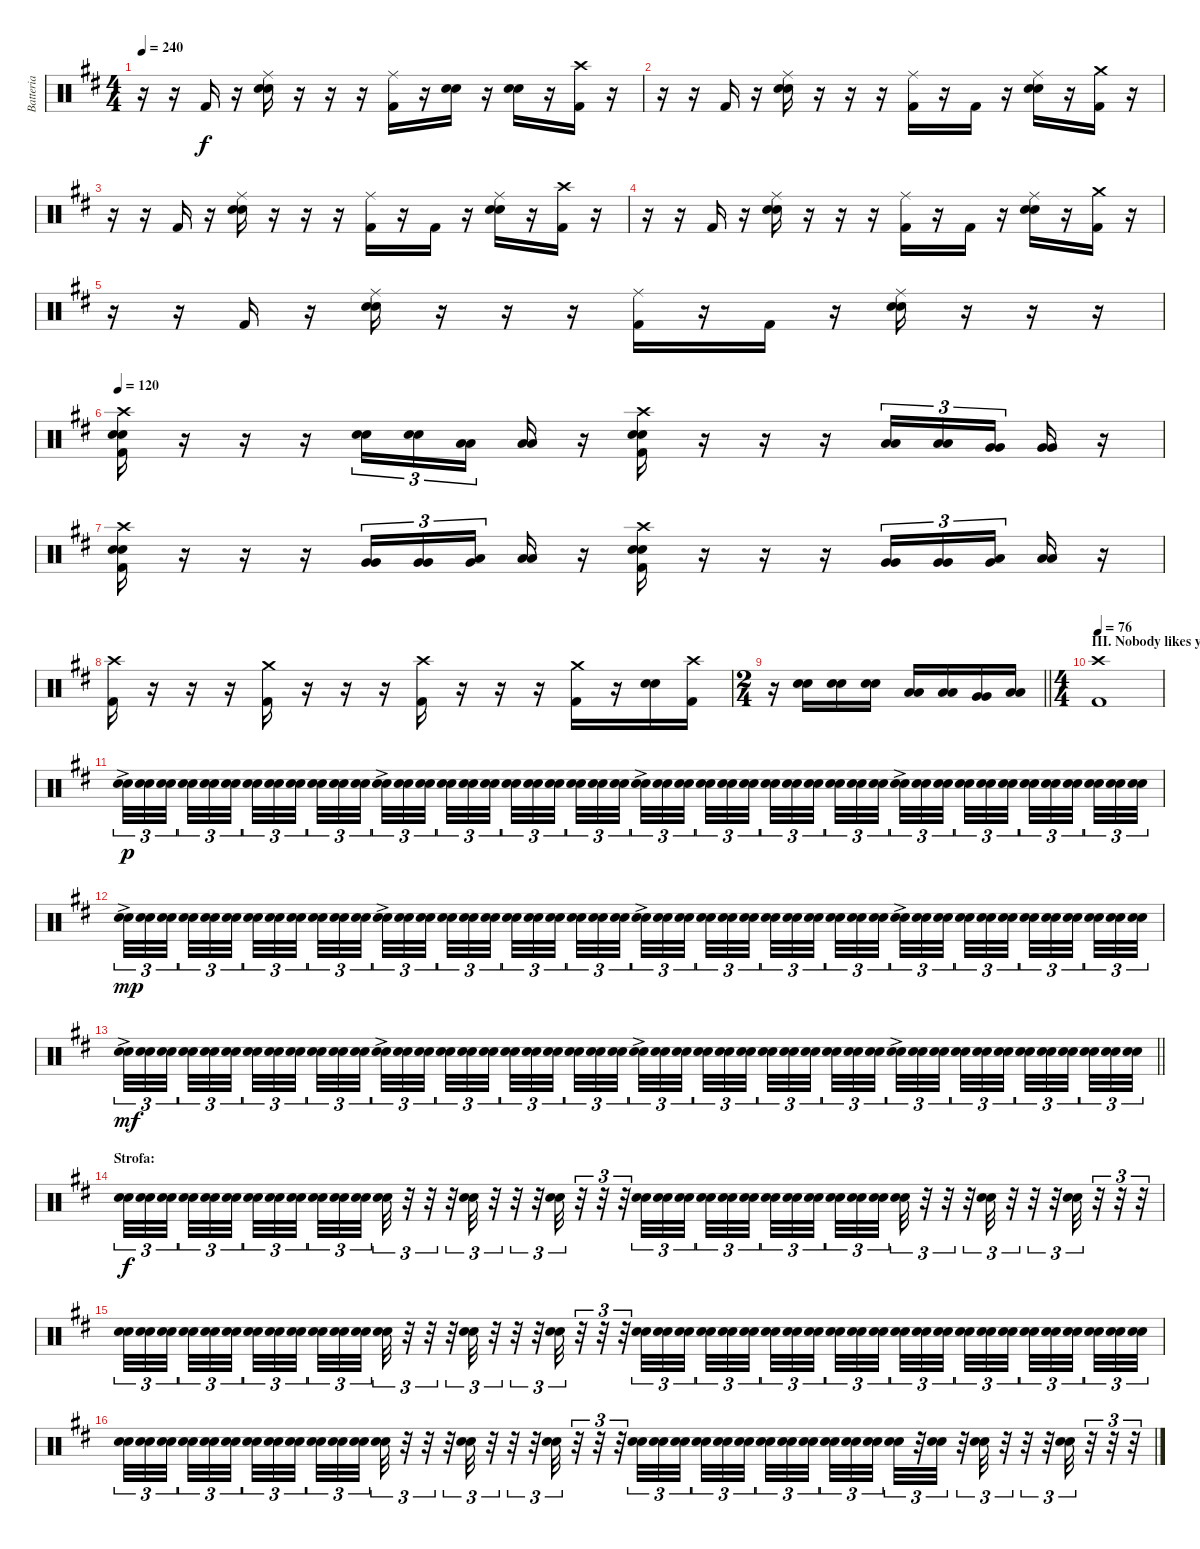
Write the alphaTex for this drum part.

\track ("Batteria" "Batteria") {instrument percussion}
\staff {score}
\articulation defaults
\ts (4 4)
\tempo 240
\clef neutral
\ks d
r.16{dy f} r.16 "Kick (hit) 2".16 r.16 ("Snare (hit) 2" "Snare (hit) 2" "Ride (middle)").16 r.16 r.16 r.16 ("Kick (hit) 2" "Ride (middle)").16 r.16 ("Snare (hit) 2" "Snare (hit) 2").16 r.16 ("Snare (hit) 2" "Snare (hit) 2").16 r.16 ("Kick (hit) 2" "Crash high (hit)").16 r.16 |
r.16 r.16 "Kick (hit) 2".16 r.16 ("Snare (hit) 2" "Snare (hit) 2" "Ride (middle)").16 r.16 r.16 r.16 ("Kick (hit) 2" "Ride (middle)").16 r.16 "Kick (hit) 2".16 r.16 ("Snare (hit) 2" "Snare (hit) 2" "Ride (middle)").16 r.16 ("Kick (hit) 2" "Crash medium (hit)").16 r.16 |
r.16 r.16 "Kick (hit) 2".16 r.16 ("Snare (hit) 2" "Snare (hit) 2" "Ride (middle)").16 r.16 r.16 r.16 ("Kick (hit) 2" "Ride (middle)").16 r.16 "Kick (hit) 2".16 r.16 ("Snare (hit) 2" "Snare (hit) 2" "Ride (middle)").16 r.16 ("Kick (hit) 2" "Crash high (hit)").16 r.16 |
r.16 r.16 "Kick (hit) 2".16 r.16 ("Snare (hit) 2" "Snare (hit) 2" "Ride (middle)").16 r.16 r.16 r.16 ("Kick (hit) 2" "Ride (middle)").16 r.16 "Kick (hit) 2".16 r.16 ("Snare (hit) 2" "Snare (hit) 2" "Ride (middle)").16 r.16 ("Kick (hit) 2" "Crash medium (hit)").16 r.16 |
r.16 r.16 "Kick (hit) 2".16 r.16 ("Snare (hit) 2" "Snare (hit) 2" "Ride (middle)").16 r.16 r.16 r.16 ("Kick (hit) 2" "Ride (middle)").16 r.16 "Kick (hit) 2".16 r.16 ("Snare (hit) 2" "Snare (hit) 2" "Ride (middle)").16 r.16 r.16 r.16 |
\tempo 120
("Kick (hit) 2" "Snare (hit) 2" "Snare (hit) 2" "Crash high (hit)").16 r.16 r.16 r.16 ("Snare (hit) 2" "Snare (hit) 2").16{tu (3 2)} ("Snare (hit) 2" "Snare (hit) 2").16{tu (3 2)} ("Low Tom (hit)" "Low Tom (hit)").16{tu (3 2) beam splitsecondary} ("Low Tom (hit)" "Low Tom (hit)").16 r.16 ("Kick (hit) 2" "Snare (hit) 2" "Snare (hit) 2" "Crash high (hit)").16 r.16 r.16 r.16 ("Low Tom (hit)" "Low Tom (hit)").16{tu (3 2)} ("Low Tom (hit)" "Low Tom (hit)").16{tu (3 2)} ("Very Low Tom (hit)" "Very Low Tom (hit)").16{tu (3 2) beam splitsecondary} ("Very Low Tom (hit)" "Very Low Tom (hit)").16 r.16 |
("Kick (hit) 2" "Snare (hit) 2" "Snare (hit) 2" "Crash high (hit)").16 r.16 r.16 r.16 ("Very Low Tom (hit)" "Very Low Tom (hit)").16{tu (3 2)} ("Very Low Tom (hit)" "Very Low Tom (hit)").16{tu (3 2)} ("Low Floor Tom (hit)" "Very Low Tom (hit)").16{tu (3 2) beam splitsecondary} ("Low Floor Tom (hit)" "Low Floor Tom (hit)").16 r.16 ("Kick (hit) 2" "Snare (hit) 2" "Snare (hit) 2" "Crash high (hit)").16 r.16 r.16 r.16 ("Very Low Tom (hit)" "Very Low Tom (hit)").16{tu (3 2)} ("Very Low Tom (hit)" "Very Low Tom (hit)").16{tu (3 2)} ("Low Floor Tom (hit)" "Very Low Tom (hit)").16{tu (3 2) beam splitsecondary} ("Low Floor Tom (hit)" "Low Floor Tom (hit)").16 r.16 |
("Kick (hit) 2" "Crash high (hit)").16 r.16 r.16 r.16 ("Kick (hit) 2" "Crash medium (hit)").16 r.16 r.16 r.16 ("Kick (hit) 2" "Crash high (hit)").16 r.16 r.16 r.16 ("Kick (hit) 2" "Crash medium (hit)").16 r.16 ("Snare (hit) 2" "Snare (hit) 2").16 ("Kick (hit) 2" "Crash high (hit)").16 |
\ts (2 4)
\barLineRight lightlight
r.16 ("Snare (hit) 2" "Snare (hit) 2").16 ("Snare (hit) 2" "Snare (hit) 2").16 ("Snare (hit) 2" "Snare (hit) 2").16 ("Low Tom (hit)" "Low Tom (hit)").16 ("Low Tom (hit)" "Low Tom (hit)").16 ("Very Low Tom (hit)" "Very Low Tom (hit)").16 ("Low Floor Tom (hit)" "Low Floor Tom (hit)").16 |
\ts (4 4)
\section ("" "III. Nobody likes you")
\tempo 76
("Kick (hit) 2" "Crash high (hit)").1 |
("Snare (hit) 2"{ac} "Snare (hit) 2"{ac}).32{tu (3 2) dy p volume 8} ("Snare (hit) 2" "Snare (hit) 2").32{tu (3 2)} ("Snare (hit) 2" "Snare (hit) 2").32{tu (3 2) beam splitsecondary} ("Snare (hit) 2" "Snare (hit) 2").32{tu (3 2)} ("Snare (hit) 2" "Snare (hit) 2").32{tu (3 2)} ("Snare (hit) 2" "Snare (hit) 2").32{tu (3 2) beam splitsecondary} ("Snare (hit) 2" "Snare (hit) 2").32{tu (3 2)} ("Snare (hit) 2" "Snare (hit) 2").32{tu (3 2)} ("Snare (hit) 2" "Snare (hit) 2").32{tu (3 2) beam splitsecondary} ("Snare (hit) 2" "Snare (hit) 2").32{tu (3 2)} ("Snare (hit) 2" "Snare (hit) 2").32{tu (3 2)} ("Snare (hit) 2" "Snare (hit) 2").32{tu (3 2)} ("Snare (hit) 2"{ac} "Snare (hit) 2"{ac}).32{tu (3 2)} ("Snare (hit) 2" "Snare (hit) 2").32{tu (3 2)} ("Snare (hit) 2" "Snare (hit) 2").32{tu (3 2) beam splitsecondary} ("Snare (hit) 2" "Snare (hit) 2").32{tu (3 2)} ("Snare (hit) 2" "Snare (hit) 2").32{tu (3 2)} ("Snare (hit) 2" "Snare (hit) 2").32{tu (3 2) beam splitsecondary} ("Snare (hit) 2" "Snare (hit) 2").32{tu (3 2)} ("Snare (hit) 2" "Snare (hit) 2").32{tu (3 2)} ("Snare (hit) 2" "Snare (hit) 2").32{tu (3 2) beam splitsecondary} ("Snare (hit) 2" "Snare (hit) 2").32{tu (3 2)} ("Snare (hit) 2" "Snare (hit) 2").32{tu (3 2)} ("Snare (hit) 2" "Snare (hit) 2").32{tu (3 2)} ("Snare (hit) 2"{ac} "Snare (hit) 2"{ac}).32{tu (3 2)} ("Snare (hit) 2" "Snare (hit) 2").32{tu (3 2)} ("Snare (hit) 2" "Snare (hit) 2").32{tu (3 2) beam splitsecondary} ("Snare (hit) 2" "Snare (hit) 2").32{tu (3 2)} ("Snare (hit) 2" "Snare (hit) 2").32{tu (3 2)} ("Snare (hit) 2" "Snare (hit) 2").32{tu (3 2) beam splitsecondary} ("Snare (hit) 2" "Snare (hit) 2").32{tu (3 2)} ("Snare (hit) 2" "Snare (hit) 2").32{tu (3 2)} ("Snare (hit) 2" "Snare (hit) 2").32{tu (3 2) beam splitsecondary} ("Snare (hit) 2" "Snare (hit) 2").32{tu (3 2)} ("Snare (hit) 2" "Snare (hit) 2").32{tu (3 2)} ("Snare (hit) 2" "Snare (hit) 2").32{tu (3 2)} ("Snare (hit) 2"{ac} "Snare (hit) 2"{ac}).32{tu (3 2)} ("Snare (hit) 2" "Snare (hit) 2").32{tu (3 2)} ("Snare (hit) 2" "Snare (hit) 2").32{tu (3 2) beam splitsecondary} ("Snare (hit) 2" "Snare (hit) 2").32{tu (3 2)} ("Snare (hit) 2" "Snare (hit) 2").32{tu (3 2)} ("Snare (hit) 2" "Snare (hit) 2").32{tu (3 2) beam splitsecondary} ("Snare (hit) 2" "Snare (hit) 2").32{tu (3 2)} ("Snare (hit) 2" "Snare (hit) 2").32{tu (3 2)} ("Snare (hit) 2" "Snare (hit) 2").32{tu (3 2) beam splitsecondary} ("Snare (hit) 2" "Snare (hit) 2").32{tu (3 2)} ("Snare (hit) 2" "Snare (hit) 2").32{tu (3 2)} ("Snare (hit) 2" "Snare (hit) 2").32{tu (3 2)} |
("Snare (hit) 2"{ac} "Snare (hit) 2"{ac}).32{tu (3 2) dy mp} ("Snare (hit) 2" "Snare (hit) 2").32{tu (3 2)} ("Snare (hit) 2" "Snare (hit) 2").32{tu (3 2) beam splitsecondary} ("Snare (hit) 2" "Snare (hit) 2").32{tu (3 2)} ("Snare (hit) 2" "Snare (hit) 2").32{tu (3 2)} ("Snare (hit) 2" "Snare (hit) 2").32{tu (3 2) beam splitsecondary} ("Snare (hit) 2" "Snare (hit) 2").32{tu (3 2)} ("Snare (hit) 2" "Snare (hit) 2").32{tu (3 2)} ("Snare (hit) 2" "Snare (hit) 2").32{tu (3 2) beam splitsecondary} ("Snare (hit) 2" "Snare (hit) 2").32{tu (3 2)} ("Snare (hit) 2" "Snare (hit) 2").32{tu (3 2)} ("Snare (hit) 2" "Snare (hit) 2").32{tu (3 2)} ("Snare (hit) 2"{ac} "Snare (hit) 2"{ac}).32{tu (3 2)} ("Snare (hit) 2" "Snare (hit) 2").32{tu (3 2)} ("Snare (hit) 2" "Snare (hit) 2").32{tu (3 2) beam splitsecondary} ("Snare (hit) 2" "Snare (hit) 2").32{tu (3 2)} ("Snare (hit) 2" "Snare (hit) 2").32{tu (3 2)} ("Snare (hit) 2" "Snare (hit) 2").32{tu (3 2) beam splitsecondary} ("Snare (hit) 2" "Snare (hit) 2").32{tu (3 2)} ("Snare (hit) 2" "Snare (hit) 2").32{tu (3 2)} ("Snare (hit) 2" "Snare (hit) 2").32{tu (3 2) beam splitsecondary} ("Snare (hit) 2" "Snare (hit) 2").32{tu (3 2)} ("Snare (hit) 2" "Snare (hit) 2").32{tu (3 2)} ("Snare (hit) 2" "Snare (hit) 2").32{tu (3 2)} ("Snare (hit) 2"{ac} "Snare (hit) 2"{ac}).32{tu (3 2)} ("Snare (hit) 2" "Snare (hit) 2").32{tu (3 2)} ("Snare (hit) 2" "Snare (hit) 2").32{tu (3 2) beam splitsecondary} ("Snare (hit) 2" "Snare (hit) 2").32{tu (3 2)} ("Snare (hit) 2" "Snare (hit) 2").32{tu (3 2)} ("Snare (hit) 2" "Snare (hit) 2").32{tu (3 2) beam splitsecondary} ("Snare (hit) 2" "Snare (hit) 2").32{tu (3 2)} ("Snare (hit) 2" "Snare (hit) 2").32{tu (3 2)} ("Snare (hit) 2" "Snare (hit) 2").32{tu (3 2) beam splitsecondary} ("Snare (hit) 2" "Snare (hit) 2").32{tu (3 2)} ("Snare (hit) 2" "Snare (hit) 2").32{tu (3 2)} ("Snare (hit) 2" "Snare (hit) 2").32{tu (3 2)} ("Snare (hit) 2"{ac} "Snare (hit) 2"{ac}).32{tu (3 2)} ("Snare (hit) 2" "Snare (hit) 2").32{tu (3 2)} ("Snare (hit) 2" "Snare (hit) 2").32{tu (3 2) beam splitsecondary} ("Snare (hit) 2" "Snare (hit) 2").32{tu (3 2)} ("Snare (hit) 2" "Snare (hit) 2").32{tu (3 2)} ("Snare (hit) 2" "Snare (hit) 2").32{tu (3 2) beam splitsecondary} ("Snare (hit) 2" "Snare (hit) 2").32{tu (3 2)} ("Snare (hit) 2" "Snare (hit) 2").32{tu (3 2)} ("Snare (hit) 2" "Snare (hit) 2").32{tu (3 2) beam splitsecondary} ("Snare (hit) 2" "Snare (hit) 2").32{tu (3 2)} ("Snare (hit) 2" "Snare (hit) 2").32{tu (3 2)} ("Snare (hit) 2" "Snare (hit) 2").32{tu (3 2)} |
\barLineRight lightlight
("Snare (hit) 2"{ac} "Snare (hit) 2"{ac}).32{tu (3 2) dy mf} ("Snare (hit) 2" "Snare (hit) 2").32{tu (3 2)} ("Snare (hit) 2" "Snare (hit) 2").32{tu (3 2) beam splitsecondary} ("Snare (hit) 2" "Snare (hit) 2").32{tu (3 2)} ("Snare (hit) 2" "Snare (hit) 2").32{tu (3 2)} ("Snare (hit) 2" "Snare (hit) 2").32{tu (3 2) beam splitsecondary} ("Snare (hit) 2" "Snare (hit) 2").32{tu (3 2)} ("Snare (hit) 2" "Snare (hit) 2").32{tu (3 2)} ("Snare (hit) 2" "Snare (hit) 2").32{tu (3 2) beam splitsecondary} ("Snare (hit) 2" "Snare (hit) 2").32{tu (3 2)} ("Snare (hit) 2" "Snare (hit) 2").32{tu (3 2)} ("Snare (hit) 2" "Snare (hit) 2").32{tu (3 2)} ("Snare (hit) 2"{ac} "Snare (hit) 2"{ac}).32{tu (3 2)} ("Snare (hit) 2" "Snare (hit) 2").32{tu (3 2)} ("Snare (hit) 2" "Snare (hit) 2").32{tu (3 2) beam splitsecondary} ("Snare (hit) 2" "Snare (hit) 2").32{tu (3 2)} ("Snare (hit) 2" "Snare (hit) 2").32{tu (3 2)} ("Snare (hit) 2" "Snare (hit) 2").32{tu (3 2) beam splitsecondary} ("Snare (hit) 2" "Snare (hit) 2").32{tu (3 2)} ("Snare (hit) 2" "Snare (hit) 2").32{tu (3 2)} ("Snare (hit) 2" "Snare (hit) 2").32{tu (3 2) beam splitsecondary} ("Snare (hit) 2" "Snare (hit) 2").32{tu (3 2)} ("Snare (hit) 2" "Snare (hit) 2").32{tu (3 2)} ("Snare (hit) 2" "Snare (hit) 2").32{tu (3 2)} ("Snare (hit) 2"{ac} "Snare (hit) 2"{ac}).32{tu (3 2)} ("Snare (hit) 2" "Snare (hit) 2").32{tu (3 2)} ("Snare (hit) 2" "Snare (hit) 2").32{tu (3 2) beam splitsecondary} ("Snare (hit) 2" "Snare (hit) 2").32{tu (3 2)} ("Snare (hit) 2" "Snare (hit) 2").32{tu (3 2)} ("Snare (hit) 2" "Snare (hit) 2").32{tu (3 2) beam splitsecondary} ("Snare (hit) 2" "Snare (hit) 2").32{tu (3 2)} ("Snare (hit) 2" "Snare (hit) 2").32{tu (3 2)} ("Snare (hit) 2" "Snare (hit) 2").32{tu (3 2) beam splitsecondary} ("Snare (hit) 2" "Snare (hit) 2").32{tu (3 2)} ("Snare (hit) 2" "Snare (hit) 2").32{tu (3 2)} ("Snare (hit) 2" "Snare (hit) 2").32{tu (3 2)} ("Snare (hit) 2"{ac} "Snare (hit) 2"{ac}).32{tu (3 2)} ("Snare (hit) 2" "Snare (hit) 2").32{tu (3 2)} ("Snare (hit) 2" "Snare (hit) 2").32{tu (3 2) beam splitsecondary} ("Snare (hit) 2" "Snare (hit) 2").32{tu (3 2)} ("Snare (hit) 2" "Snare (hit) 2").32{tu (3 2)} ("Snare (hit) 2" "Snare (hit) 2").32{tu (3 2) beam splitsecondary} ("Snare (hit) 2" "Snare (hit) 2").32{tu (3 2)} ("Snare (hit) 2" "Snare (hit) 2").32{tu (3 2)} ("Snare (hit) 2" "Snare (hit) 2").32{tu (3 2) beam splitsecondary} ("Snare (hit) 2" "Snare (hit) 2").32{tu (3 2)} ("Snare (hit) 2" "Snare (hit) 2").32{tu (3 2)} ("Snare (hit) 2" "Snare (hit) 2").32{tu (3 2)} |
\section ("" "Strofa:")
("Snare (hit) 2" "Snare (hit) 2").32{tu (3 2) dy f} ("Snare (hit) 2" "Snare (hit) 2").32{tu (3 2)} ("Snare (hit) 2" "Snare (hit) 2").32{tu (3 2) beam splitsecondary} ("Snare (hit) 2" "Snare (hit) 2").32{tu (3 2)} ("Snare (hit) 2" "Snare (hit) 2").32{tu (3 2)} ("Snare (hit) 2" "Snare (hit) 2").32{tu (3 2) beam splitsecondary} ("Snare (hit) 2" "Snare (hit) 2").32{tu (3 2)} ("Snare (hit) 2" "Snare (hit) 2").32{tu (3 2)} ("Snare (hit) 2" "Snare (hit) 2").32{tu (3 2) beam splitsecondary} ("Snare (hit) 2" "Snare (hit) 2").32{tu (3 2)} ("Snare (hit) 2" "Snare (hit) 2").32{tu (3 2)} ("Snare (hit) 2" "Snare (hit) 2").32{tu (3 2)} ("Snare (hit) 2" "Snare (hit) 2").32{tu (3 2)} r.32{tu (3 2)} r.32{tu (3 2)} r.32{tu (3 2)} ("Snare (hit) 2" "Snare (hit) 2").32{tu (3 2)} r.32{tu (3 2)} r.32{tu (3 2)} r.32{tu (3 2)} ("Snare (hit) 2" "Snare (hit) 2").32{tu (3 2)} r.32{tu (3 2)} r.32{tu (3 2)} r.32{tu (3 2)} ("Snare (hit) 2" "Snare (hit) 2").32{tu (3 2)} ("Snare (hit) 2" "Snare (hit) 2").32{tu (3 2)} ("Snare (hit) 2" "Snare (hit) 2").32{tu (3 2) beam splitsecondary} ("Snare (hit) 2" "Snare (hit) 2").32{tu (3 2)} ("Snare (hit) 2" "Snare (hit) 2").32{tu (3 2)} ("Snare (hit) 2" "Snare (hit) 2").32{tu (3 2) beam splitsecondary} ("Snare (hit) 2" "Snare (hit) 2").32{tu (3 2)} ("Snare (hit) 2" "Snare (hit) 2").32{tu (3 2)} ("Snare (hit) 2" "Snare (hit) 2").32{tu (3 2) beam splitsecondary} ("Snare (hit) 2" "Snare (hit) 2").32{tu (3 2)} ("Snare (hit) 2" "Snare (hit) 2").32{tu (3 2)} ("Snare (hit) 2" "Snare (hit) 2").32{tu (3 2)} ("Snare (hit) 2" "Snare (hit) 2").32{tu (3 2)} r.32{tu (3 2)} r.32{tu (3 2)} r.32{tu (3 2)} ("Snare (hit) 2" "Snare (hit) 2").32{tu (3 2)} r.32{tu (3 2)} r.32{tu (3 2)} r.32{tu (3 2)} ("Snare (hit) 2" "Snare (hit) 2").32{tu (3 2)} r.32{tu (3 2)} r.32{tu (3 2)} r.32{tu (3 2)} |
("Snare (hit) 2" "Snare (hit) 2").32{tu (3 2)} ("Snare (hit) 2" "Snare (hit) 2").32{tu (3 2)} ("Snare (hit) 2" "Snare (hit) 2").32{tu (3 2) beam splitsecondary} ("Snare (hit) 2" "Snare (hit) 2").32{tu (3 2)} ("Snare (hit) 2" "Snare (hit) 2").32{tu (3 2)} ("Snare (hit) 2" "Snare (hit) 2").32{tu (3 2) beam splitsecondary} ("Snare (hit) 2" "Snare (hit) 2").32{tu (3 2)} ("Snare (hit) 2" "Snare (hit) 2").32{tu (3 2)} ("Snare (hit) 2" "Snare (hit) 2").32{tu (3 2) beam splitsecondary} ("Snare (hit) 2" "Snare (hit) 2").32{tu (3 2)} ("Snare (hit) 2" "Snare (hit) 2").32{tu (3 2)} ("Snare (hit) 2" "Snare (hit) 2").32{tu (3 2)} ("Snare (hit) 2" "Snare (hit) 2").32{tu (3 2)} r.32{tu (3 2)} r.32{tu (3 2)} r.32{tu (3 2)} ("Snare (hit) 2" "Snare (hit) 2").32{tu (3 2)} r.32{tu (3 2)} r.32{tu (3 2)} r.32{tu (3 2)} ("Snare (hit) 2" "Snare (hit) 2").32{tu (3 2)} r.32{tu (3 2)} r.32{tu (3 2)} r.32{tu (3 2)} ("Snare (hit) 2" "Snare (hit) 2").32{tu (3 2)} ("Snare (hit) 2" "Snare (hit) 2").32{tu (3 2)} ("Snare (hit) 2" "Snare (hit) 2").32{tu (3 2) beam splitsecondary} ("Snare (hit) 2" "Snare (hit) 2").32{tu (3 2)} ("Snare (hit) 2" "Snare (hit) 2").32{tu (3 2)} ("Snare (hit) 2" "Snare (hit) 2").32{tu (3 2) beam splitsecondary} ("Snare (hit) 2" "Snare (hit) 2").32{tu (3 2)} ("Snare (hit) 2" "Snare (hit) 2").32{tu (3 2)} ("Snare (hit) 2" "Snare (hit) 2").32{tu (3 2) beam splitsecondary} ("Snare (hit) 2" "Snare (hit) 2").32{tu (3 2)} ("Snare (hit) 2" "Snare (hit) 2").32{tu (3 2)} ("Snare (hit) 2" "Snare (hit) 2").32{tu (3 2)} ("Snare (hit) 2" "Snare (hit) 2").32{tu (3 2)} ("Snare (hit) 2" "Snare (hit) 2").32{tu (3 2)} ("Snare (hit) 2" "Snare (hit) 2").32{tu (3 2) beam splitsecondary} ("Snare (hit) 2" "Snare (hit) 2").32{tu (3 2)} ("Snare (hit) 2" "Snare (hit) 2").32{tu (3 2)} ("Snare (hit) 2" "Snare (hit) 2").32{tu (3 2) beam splitsecondary} ("Snare (hit) 2" "Snare (hit) 2").32{tu (3 2)} ("Snare (hit) 2" "Snare (hit) 2").32{tu (3 2)} ("Snare (hit) 2" "Snare (hit) 2").32{tu (3 2) beam splitsecondary} ("Snare (hit) 2" "Snare (hit) 2").32{tu (3 2)} ("Snare (hit) 2" "Snare (hit) 2").32{tu (3 2)} ("Snare (hit) 2" "Snare (hit) 2").32{tu (3 2)} |
("Snare (hit) 2" "Snare (hit) 2").32{tu (3 2)} ("Snare (hit) 2" "Snare (hit) 2").32{tu (3 2)} ("Snare (hit) 2" "Snare (hit) 2").32{tu (3 2) beam splitsecondary} ("Snare (hit) 2" "Snare (hit) 2").32{tu (3 2)} ("Snare (hit) 2" "Snare (hit) 2").32{tu (3 2)} ("Snare (hit) 2" "Snare (hit) 2").32{tu (3 2) beam splitsecondary} ("Snare (hit) 2" "Snare (hit) 2").32{tu (3 2)} ("Snare (hit) 2" "Snare (hit) 2").32{tu (3 2)} ("Snare (hit) 2" "Snare (hit) 2").32{tu (3 2) beam splitsecondary} ("Snare (hit) 2" "Snare (hit) 2").32{tu (3 2)} ("Snare (hit) 2" "Snare (hit) 2").32{tu (3 2)} ("Snare (hit) 2" "Snare (hit) 2").32{tu (3 2)} ("Snare (hit) 2" "Snare (hit) 2").32{tu (3 2)} r.32{tu (3 2)} r.32{tu (3 2)} r.32{tu (3 2)} ("Snare (hit) 2" "Snare (hit) 2").32{tu (3 2)} r.32{tu (3 2)} r.32{tu (3 2)} r.32{tu (3 2)} ("Snare (hit) 2" "Snare (hit) 2").32{tu (3 2)} r.32{tu (3 2)} r.32{tu (3 2)} r.32{tu (3 2)} ("Snare (hit) 2" "Snare (hit) 2").32{tu (3 2)} ("Snare (hit) 2" "Snare (hit) 2").32{tu (3 2)} ("Snare (hit) 2" "Snare (hit) 2").32{tu (3 2) beam splitsecondary} ("Snare (hit) 2" "Snare (hit) 2").32{tu (3 2)} ("Snare (hit) 2" "Snare (hit) 2").32{tu (3 2)} ("Snare (hit) 2" "Snare (hit) 2").32{tu (3 2) beam splitsecondary} ("Snare (hit) 2" "Snare (hit) 2").32{tu (3 2)} ("Snare (hit) 2" "Snare (hit) 2").32{tu (3 2)} ("Snare (hit) 2" "Snare (hit) 2").32{tu (3 2) beam splitsecondary} ("Snare (hit) 2" "Snare (hit) 2").32{tu (3 2)} ("Snare (hit) 2" "Snare (hit) 2").32{tu (3 2)} ("Snare (hit) 2" "Snare (hit) 2").32{tu (3 2)} ("Snare (hit) 2" "Snare (hit) 2").32{tu (3 2)} r.32{tu (3 2)} ("Snare (hit) 2" "Snare (hit) 2").32{tu (3 2)} r.32{tu (3 2)} ("Snare (hit) 2" "Snare (hit) 2").32{tu (3 2)} r.32{tu (3 2)} r.32{tu (3 2)} r.32{tu (3 2)} ("Snare (hit) 2" "Snare (hit) 2").32{tu (3 2)} r.32{tu (3 2)} r.32{tu (3 2)} r.32{tu (3 2)}
